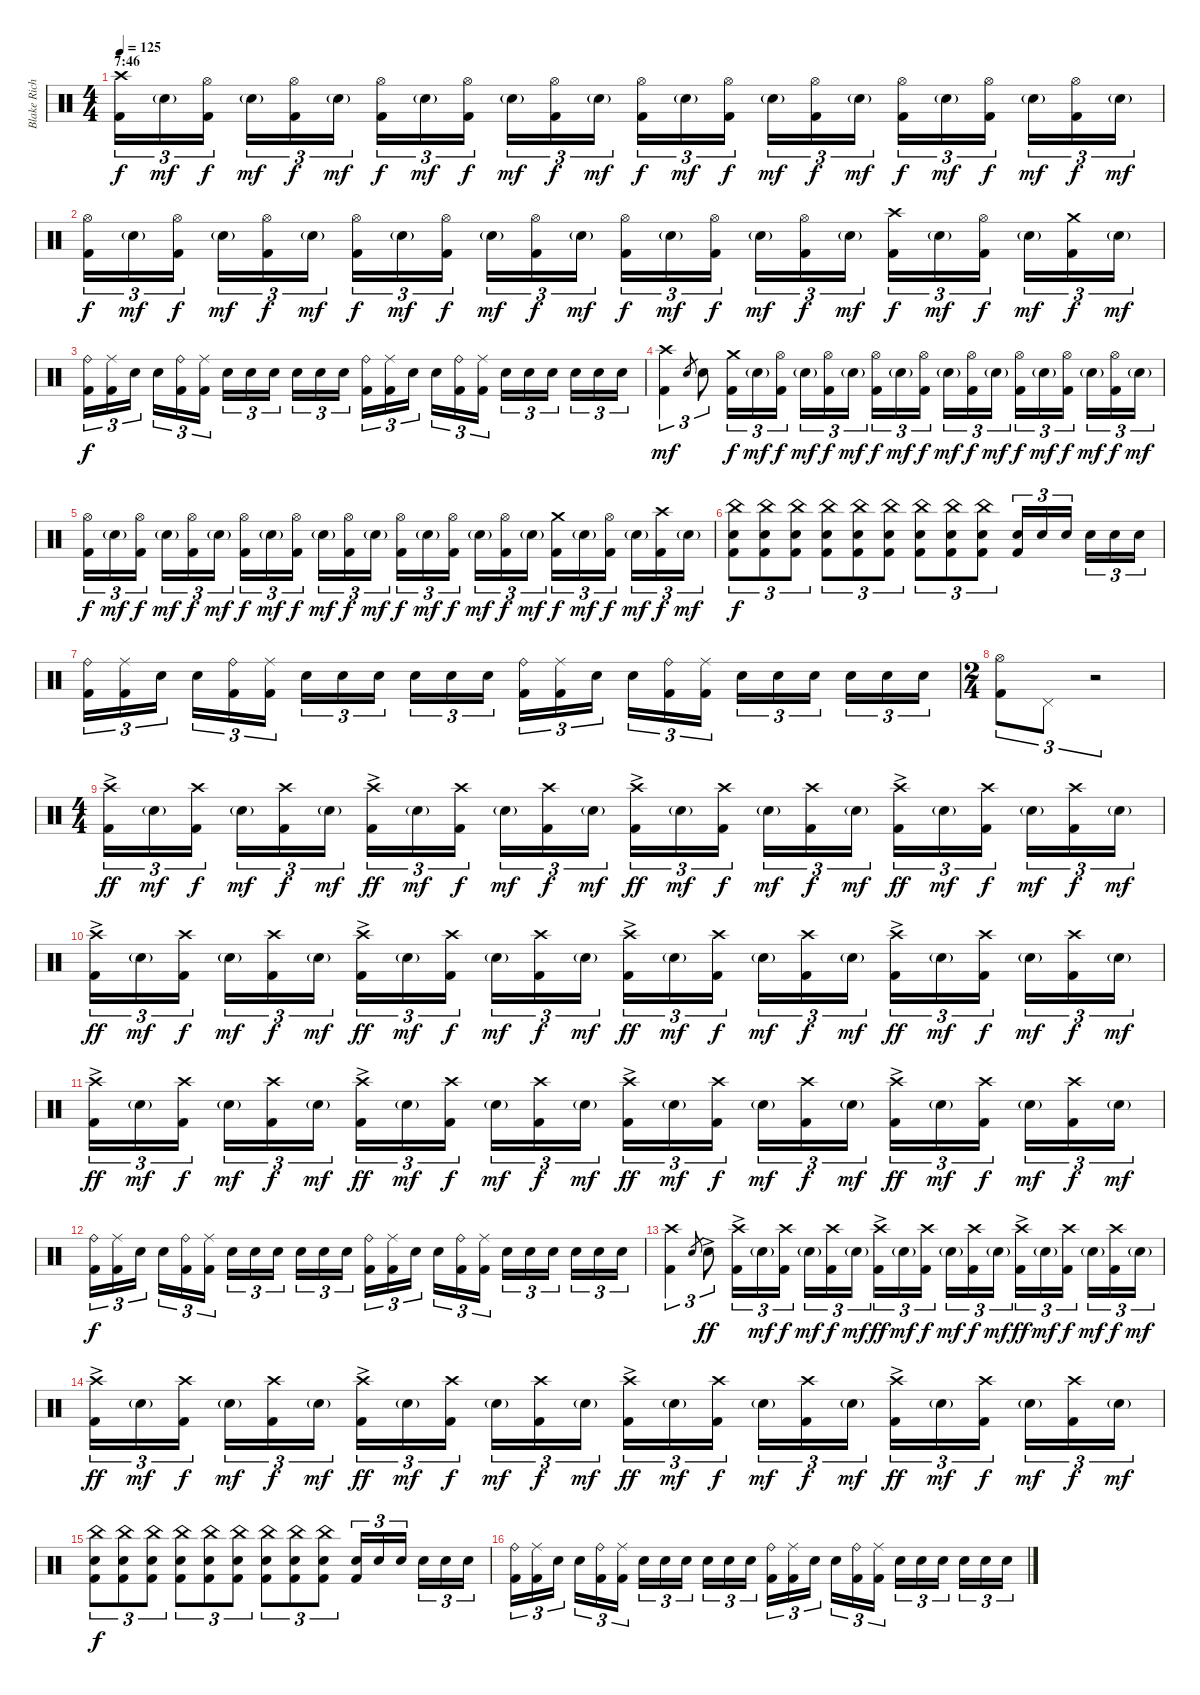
\track ("Blake Richardson" "Blake Rich") {instrument percussion}
\staff {score}
\articulation defaults
\ts (4 4)
\section ("" "7:46")
\tempo 125
\clef neutral
\ks c
("Crash high (hit)" "Kick (hit) 2").16{tu (3 2) dy f volume 13} "Electric Snare (hit)"{g}.16{tu (3 2) dy mf} ("Hi-Hat (open)" "Kick (hit) 2").16{tu (3 2) dy f beam splitsecondary} "Electric Snare (hit)"{g}.16{tu (3 2) dy mf} ("Hi-Hat (open)" "Kick (hit) 2").16{tu (3 2) dy f} "Electric Snare (hit)"{g}.16{tu (3 2) dy mf} ("Hi-Hat (open)" "Kick (hit) 2").16{tu (3 2) dy f} "Electric Snare (hit)"{g}.16{tu (3 2) dy mf} ("Hi-Hat (open)" "Kick (hit) 2").16{tu (3 2) dy f beam splitsecondary} "Electric Snare (hit)"{g}.16{tu (3 2) dy mf} ("Hi-Hat (open)" "Kick (hit) 2").16{tu (3 2) dy f} "Electric Snare (hit)"{g}.16{tu (3 2) dy mf} ("Hi-Hat (open)" "Kick (hit) 2").16{tu (3 2) dy f} "Electric Snare (hit)"{g}.16{tu (3 2) dy mf} ("Hi-Hat (open)" "Kick (hit) 2").16{tu (3 2) dy f beam splitsecondary} "Electric Snare (hit)"{g}.16{tu (3 2) dy mf} ("Hi-Hat (open)" "Kick (hit) 2").16{tu (3 2) dy f} "Electric Snare (hit)"{g}.16{tu (3 2) dy mf} ("Hi-Hat (open)" "Kick (hit) 2").16{tu (3 2) dy f} "Electric Snare (hit)"{g}.16{tu (3 2) dy mf} ("Hi-Hat (open)" "Kick (hit) 2").16{tu (3 2) dy f beam splitsecondary} "Electric Snare (hit)"{g}.16{tu (3 2) dy mf} ("Hi-Hat (open)" "Kick (hit) 2").16{tu (3 2) dy f} "Electric Snare (hit)"{g}.16{tu (3 2) dy mf} |
("Hi-Hat (open)" "Kick (hit) 2").16{tu (3 2) dy f} "Electric Snare (hit)"{g}.16{tu (3 2) dy mf} ("Hi-Hat (open)" "Kick (hit) 2").16{tu (3 2) dy f beam splitsecondary} "Electric Snare (hit)"{g}.16{tu (3 2) dy mf} ("Hi-Hat (open)" "Kick (hit) 2").16{tu (3 2) dy f} "Electric Snare (hit)"{g}.16{tu (3 2) dy mf} ("Hi-Hat (open)" "Kick (hit) 2").16{tu (3 2) dy f} "Electric Snare (hit)"{g}.16{tu (3 2) dy mf} ("Hi-Hat (open)" "Kick (hit) 2").16{tu (3 2) dy f beam splitsecondary} "Electric Snare (hit)"{g}.16{tu (3 2) dy mf} ("Hi-Hat (open)" "Kick (hit) 2").16{tu (3 2) dy f} "Electric Snare (hit)"{g}.16{tu (3 2) dy mf} ("Hi-Hat (open)" "Kick (hit) 2").16{tu (3 2) dy f} "Electric Snare (hit)"{g}.16{tu (3 2) dy mf} ("Hi-Hat (open)" "Kick (hit) 2").16{tu (3 2) dy f beam splitsecondary} "Electric Snare (hit)"{g}.16{tu (3 2) dy mf} ("Hi-Hat (open)" "Kick (hit) 2").16{tu (3 2) dy f} "Electric Snare (hit)"{g}.16{tu (3 2) dy mf} ("Crash high (hit)" "Kick (hit) 2").16{tu (3 2) dy f} "Electric Snare (hit)"{g}.16{tu (3 2) dy mf} ("Hi-Hat (open)" "Kick (hit) 2").16{tu (3 2) dy f beam splitsecondary} "Electric Snare (hit)"{g}.16{tu (3 2) dy mf} ("Crash medium (hit)" "Kick (hit) 2").16{tu (3 2) dy f} "Electric Snare (hit)"{g}.16{tu (3 2) dy mf} |
("Ride (bell)" "Kick (hit) 2").16{tu (3 2) dy f} ("Ride (middle)" "Kick (hit) 2").16{tu (3 2)} "Electric Snare (hit)".16{tu (3 2) beam splitsecondary} "Electric Snare (hit)".16{tu (3 2)} ("Ride (bell)" "Kick (hit) 2").16{tu (3 2)} ("Ride (middle)" "Kick (hit) 2").16{tu (3 2)} "Electric Snare (hit)".16{tu (3 2)} "Electric Snare (hit)".16{tu (3 2)} "Electric Snare (hit)".16{tu (3 2) beam splitsecondary} "Electric Snare (hit)".16{tu (3 2)} "Electric Snare (hit)".16{tu (3 2)} "Electric Snare (hit)".16{tu (3 2)} ("Ride (bell)" "Kick (hit) 2").16{tu (3 2)} ("Ride (middle)" "Kick (hit) 2").16{tu (3 2)} "Electric Snare (hit)".16{tu (3 2) beam splitsecondary} "Electric Snare (hit)".16{tu (3 2)} ("Ride (bell)" "Kick (hit) 2").16{tu (3 2)} ("Ride (middle)" "Kick (hit) 2").16{tu (3 2)} "Electric Snare (hit)".16{tu (3 2)} "Electric Snare (hit)".16{tu (3 2)} "Electric Snare (hit)".16{tu (3 2) beam splitsecondary} "Electric Snare (hit)".16{tu (3 2)} "Electric Snare (hit)".16{tu (3 2)} "Electric Snare (hit)".16{tu (3 2)} |
("Crash high (hit)" "Kick (hit) 2").4{tu (3 2) dy mf} "Electric Snare (hit)".8{gr} "Electric Snare (hit)".8{tu (3 2)} ("Crash medium (hit)" "Kick (hit) 2").16{tu (3 2) dy f} "Electric Snare (hit)"{g}.16{tu (3 2) dy mf} ("Hi-Hat (open)" "Kick (hit) 2").16{tu (3 2) dy f beam splitsecondary} "Electric Snare (hit)"{g}.16{tu (3 2) dy mf} ("Hi-Hat (open)" "Kick (hit) 2").16{tu (3 2) dy f} "Electric Snare (hit)"{g}.16{tu (3 2) dy mf} ("Hi-Hat (open)" "Kick (hit) 2").16{tu (3 2) dy f} "Electric Snare (hit)"{g}.16{tu (3 2) dy mf} ("Hi-Hat (open)" "Kick (hit) 2").16{tu (3 2) dy f beam splitsecondary} "Electric Snare (hit)"{g}.16{tu (3 2) dy mf} ("Hi-Hat (open)" "Kick (hit) 2").16{tu (3 2) dy f} "Electric Snare (hit)"{g}.16{tu (3 2) dy mf} ("Hi-Hat (open)" "Kick (hit) 2").16{tu (3 2) dy f} "Electric Snare (hit)"{g}.16{tu (3 2) dy mf} ("Hi-Hat (open)" "Kick (hit) 2").16{tu (3 2) dy f beam splitsecondary} "Electric Snare (hit)"{g}.16{tu (3 2) dy mf} ("Hi-Hat (open)" "Kick (hit) 2").16{tu (3 2) dy f} "Electric Snare (hit)"{g}.16{tu (3 2) dy mf} |
("Hi-Hat (open)" "Kick (hit) 2").16{tu (3 2) dy f} "Electric Snare (hit)"{g}.16{tu (3 2) dy mf} ("Hi-Hat (open)" "Kick (hit) 2").16{tu (3 2) dy f beam splitsecondary} "Electric Snare (hit)"{g}.16{tu (3 2) dy mf} ("Hi-Hat (open)" "Kick (hit) 2").16{tu (3 2) dy f} "Electric Snare (hit)"{g}.16{tu (3 2) dy mf} ("Hi-Hat (open)" "Kick (hit) 2").16{tu (3 2) dy f} "Electric Snare (hit)"{g}.16{tu (3 2) dy mf} ("Hi-Hat (open)" "Kick (hit) 2").16{tu (3 2) dy f beam splitsecondary} "Electric Snare (hit)"{g}.16{tu (3 2) dy mf} ("Hi-Hat (open)" "Kick (hit) 2").16{tu (3 2) dy f} "Electric Snare (hit)"{g}.16{tu (3 2) dy mf} ("Hi-Hat (open)" "Kick (hit) 2").16{tu (3 2) dy f} "Electric Snare (hit)"{g}.16{tu (3 2) dy mf} ("Hi-Hat (open)" "Kick (hit) 2").16{tu (3 2) dy f beam splitsecondary} "Electric Snare (hit)"{g}.16{tu (3 2) dy mf} ("Hi-Hat (open)" "Kick (hit) 2").16{tu (3 2) dy f} "Electric Snare (hit)"{g}.16{tu (3 2) dy mf} ("Crash medium (hit)" "Kick (hit) 2").16{tu (3 2) dy f} "Electric Snare (hit)"{g}.16{tu (3 2) dy mf} ("Hi-Hat (open)" "Kick (hit) 2").16{tu (3 2) dy f beam splitsecondary} "Electric Snare (hit)"{g}.16{tu (3 2) dy mf} ("Crash high (hit)" "Kick (hit) 2").16{tu (3 2) dy f} "Electric Snare (hit)"{g}.16{tu (3 2) dy mf} |
("China (hit)" "Electric Snare (hit)" "Kick (hit) 2").8{tu (3 2) dy f} ("China (hit)" "Electric Snare (hit)" "Kick (hit) 2").8{tu (3 2)} ("China (hit)" "Electric Snare (hit)" "Kick (hit) 2").8{tu (3 2)} ("China (hit)" "Electric Snare (hit)" "Kick (hit) 2").8{tu (3 2)} ("China (hit)" "Electric Snare (hit)" "Kick (hit) 2").8{tu (3 2)} ("China (hit)" "Electric Snare (hit)" "Kick (hit) 2").8{tu (3 2)} ("China (hit)" "Electric Snare (hit)" "Kick (hit) 2").8{tu (3 2)} ("China (hit)" "Electric Snare (hit)" "Kick (hit) 2").8{tu (3 2)} ("China (hit)" "Electric Snare (hit)" "Kick (hit) 2").8{tu (3 2)} ("Electric Snare (hit)" "Kick (hit) 2").16{tu (3 2)} "Electric Snare (hit)".16{tu (3 2)} "Electric Snare (hit)".16{tu (3 2) beam splitsecondary} "Electric Snare (hit)".16{tu (3 2)} "Electric Snare (hit)".16{tu (3 2)} "Electric Snare (hit)".16{tu (3 2)} |
("Ride (bell)" "Kick (hit) 2").16{tu (3 2)} ("Ride (middle)" "Kick (hit) 2").16{tu (3 2)} "Electric Snare (hit)".16{tu (3 2) beam splitsecondary} "Electric Snare (hit)".16{tu (3 2)} ("Ride (bell)" "Kick (hit) 2").16{tu (3 2)} ("Ride (middle)" "Kick (hit) 2").16{tu (3 2)} "Electric Snare (hit)".16{tu (3 2)} "Electric Snare (hit)".16{tu (3 2)} "Electric Snare (hit)".16{tu (3 2) beam splitsecondary} "Electric Snare (hit)".16{tu (3 2)} "Electric Snare (hit)".16{tu (3 2)} "Electric Snare (hit)".16{tu (3 2)} ("Ride (bell)" "Kick (hit) 2").16{tu (3 2)} ("Ride (middle)" "Kick (hit) 2").16{tu (3 2)} "Electric Snare (hit)".16{tu (3 2) beam splitsecondary} "Electric Snare (hit)".16{tu (3 2)} ("Ride (bell)" "Kick (hit) 2").16{tu (3 2)} ("Ride (middle)" "Kick (hit) 2").16{tu (3 2)} "Electric Snare (hit)".16{tu (3 2)} "Electric Snare (hit)".16{tu (3 2)} "Electric Snare (hit)".16{tu (3 2) beam splitsecondary} "Electric Snare (hit)".16{tu (3 2)} "Electric Snare (hit)".16{tu (3 2)} "Electric Snare (hit)".16{tu (3 2)} |
\ts (2 4)
("Hi-Hat (open)" "Kick (hit) 2").8{tu (3 2)} "Pedal Hi-Hat (hit)".8{tu (3 2)} r.2{tu (3 2)} |
\ts (4 4)
("Crash high (hit)"{ac} "Kick (hit) 2").16{tu (3 2) dy ff} "Electric Snare (hit)"{g}.16{tu (3 2) dy mf} ("Crash high (hit)" "Kick (hit) 2").16{tu (3 2) dy f beam splitsecondary} "Electric Snare (hit)"{g}.16{tu (3 2) dy mf} ("Crash high (hit)" "Kick (hit) 2").16{tu (3 2) dy f} "Electric Snare (hit)"{g}.16{tu (3 2) dy mf} ("Crash high (hit)"{ac} "Kick (hit) 2").16{tu (3 2) dy ff} "Electric Snare (hit)"{g}.16{tu (3 2) dy mf} ("Crash high (hit)" "Kick (hit) 2").16{tu (3 2) dy f beam splitsecondary} "Electric Snare (hit)"{g}.16{tu (3 2) dy mf} ("Crash high (hit)" "Kick (hit) 2").16{tu (3 2) dy f} "Electric Snare (hit)"{g}.16{tu (3 2) dy mf} ("Crash high (hit)"{ac} "Kick (hit) 2").16{tu (3 2) dy ff} "Electric Snare (hit)"{g}.16{tu (3 2) dy mf} ("Crash high (hit)" "Kick (hit) 2").16{tu (3 2) dy f beam splitsecondary} "Electric Snare (hit)"{g}.16{tu (3 2) dy mf} ("Crash high (hit)" "Kick (hit) 2").16{tu (3 2) dy f} "Electric Snare (hit)"{g}.16{tu (3 2) dy mf} ("Crash high (hit)"{ac} "Kick (hit) 2").16{tu (3 2) dy ff} "Electric Snare (hit)"{g}.16{tu (3 2) dy mf} ("Crash high (hit)" "Kick (hit) 2").16{tu (3 2) dy f beam splitsecondary} "Electric Snare (hit)"{g}.16{tu (3 2) dy mf} ("Crash high (hit)" "Kick (hit) 2").16{tu (3 2) dy f} "Electric Snare (hit)"{g}.16{tu (3 2) dy mf} |
("Crash high (hit)"{ac} "Kick (hit) 2").16{tu (3 2) dy ff} "Electric Snare (hit)"{g}.16{tu (3 2) dy mf} ("Crash high (hit)" "Kick (hit) 2").16{tu (3 2) dy f beam splitsecondary} "Electric Snare (hit)"{g}.16{tu (3 2) dy mf} ("Crash high (hit)" "Kick (hit) 2").16{tu (3 2) dy f} "Electric Snare (hit)"{g}.16{tu (3 2) dy mf} ("Crash high (hit)"{ac} "Kick (hit) 2").16{tu (3 2) dy ff} "Electric Snare (hit)"{g}.16{tu (3 2) dy mf} ("Crash high (hit)" "Kick (hit) 2").16{tu (3 2) dy f beam splitsecondary} "Electric Snare (hit)"{g}.16{tu (3 2) dy mf} ("Crash high (hit)" "Kick (hit) 2").16{tu (3 2) dy f} "Electric Snare (hit)"{g}.16{tu (3 2) dy mf} ("Crash high (hit)"{ac} "Kick (hit) 2").16{tu (3 2) dy ff} "Electric Snare (hit)"{g}.16{tu (3 2) dy mf} ("Crash high (hit)" "Kick (hit) 2").16{tu (3 2) dy f beam splitsecondary} "Electric Snare (hit)"{g}.16{tu (3 2) dy mf} ("Crash high (hit)" "Kick (hit) 2").16{tu (3 2) dy f} "Electric Snare (hit)"{g}.16{tu (3 2) dy mf} ("Crash high (hit)"{ac} "Kick (hit) 2").16{tu (3 2) dy ff} "Electric Snare (hit)"{g}.16{tu (3 2) dy mf} ("Crash high (hit)" "Kick (hit) 2").16{tu (3 2) dy f beam splitsecondary} "Electric Snare (hit)"{g}.16{tu (3 2) dy mf} ("Crash high (hit)" "Kick (hit) 2").16{tu (3 2) dy f} "Electric Snare (hit)"{g}.16{tu (3 2) dy mf} |
("Crash high (hit)"{ac} "Kick (hit) 2").16{tu (3 2) dy ff} "Electric Snare (hit)"{g}.16{tu (3 2) dy mf} ("Crash high (hit)" "Kick (hit) 2").16{tu (3 2) dy f beam splitsecondary} "Electric Snare (hit)"{g}.16{tu (3 2) dy mf} ("Crash high (hit)" "Kick (hit) 2").16{tu (3 2) dy f} "Electric Snare (hit)"{g}.16{tu (3 2) dy mf} ("Crash high (hit)"{ac} "Kick (hit) 2").16{tu (3 2) dy ff} "Electric Snare (hit)"{g}.16{tu (3 2) dy mf} ("Crash high (hit)" "Kick (hit) 2").16{tu (3 2) dy f beam splitsecondary} "Electric Snare (hit)"{g}.16{tu (3 2) dy mf} ("Crash high (hit)" "Kick (hit) 2").16{tu (3 2) dy f} "Electric Snare (hit)"{g}.16{tu (3 2) dy mf} ("Crash high (hit)"{ac} "Kick (hit) 2").16{tu (3 2) dy ff} "Electric Snare (hit)"{g}.16{tu (3 2) dy mf} ("Crash high (hit)" "Kick (hit) 2").16{tu (3 2) dy f beam splitsecondary} "Electric Snare (hit)"{g}.16{tu (3 2) dy mf} ("Crash high (hit)" "Kick (hit) 2").16{tu (3 2) dy f} "Electric Snare (hit)"{g}.16{tu (3 2) dy mf} ("Crash high (hit)"{ac} "Kick (hit) 2").16{tu (3 2) dy ff} "Electric Snare (hit)"{g}.16{tu (3 2) dy mf} ("Crash high (hit)" "Kick (hit) 2").16{tu (3 2) dy f beam splitsecondary} "Electric Snare (hit)"{g}.16{tu (3 2) dy mf} ("Crash high (hit)" "Kick (hit) 2").16{tu (3 2) dy f} "Electric Snare (hit)"{g}.16{tu (3 2) dy mf} |
("Ride (bell)" "Kick (hit) 2").16{tu (3 2) dy f} ("Ride (middle)" "Kick (hit) 2").16{tu (3 2)} "Electric Snare (hit)".16{tu (3 2) beam splitsecondary} "Electric Snare (hit)".16{tu (3 2)} ("Ride (bell)" "Kick (hit) 2").16{tu (3 2)} ("Ride (middle)" "Kick (hit) 2").16{tu (3 2)} "Electric Snare (hit)".16{tu (3 2)} "Electric Snare (hit)".16{tu (3 2)} "Electric Snare (hit)".16{tu (3 2) beam splitsecondary} "Electric Snare (hit)".16{tu (3 2)} "Electric Snare (hit)".16{tu (3 2)} "Electric Snare (hit)".16{tu (3 2)} ("Ride (bell)" "Kick (hit) 2").16{tu (3 2)} ("Ride (middle)" "Kick (hit) 2").16{tu (3 2)} "Electric Snare (hit)".16{tu (3 2) beam splitsecondary} "Electric Snare (hit)".16{tu (3 2)} ("Ride (bell)" "Kick (hit) 2").16{tu (3 2)} ("Ride (middle)" "Kick (hit) 2").16{tu (3 2)} "Electric Snare (hit)".16{tu (3 2)} "Electric Snare (hit)".16{tu (3 2)} "Electric Snare (hit)".16{tu (3 2) beam splitsecondary} "Electric Snare (hit)".16{tu (3 2)} "Electric Snare (hit)".16{tu (3 2)} "Electric Snare (hit)".16{tu (3 2)} |
("Crash high (hit)" "Kick (hit) 2").4{tu (3 2)} "Electric Snare (hit)".8{gr} "Electric Snare (hit)"{ac}.8{tu (3 2) dy ff} ("Crash high (hit)"{ac} "Kick (hit) 2").16{tu (3 2)} "Electric Snare (hit)"{g}.16{tu (3 2) dy mf} ("Crash high (hit)" "Kick (hit) 2").16{tu (3 2) dy f beam splitsecondary} "Electric Snare (hit)"{g}.16{tu (3 2) dy mf} ("Crash high (hit)" "Kick (hit) 2").16{tu (3 2) dy f} "Electric Snare (hit)"{g}.16{tu (3 2) dy mf} ("Crash high (hit)"{ac} "Kick (hit) 2").16{tu (3 2) dy ff} "Electric Snare (hit)"{g}.16{tu (3 2) dy mf} ("Crash high (hit)" "Kick (hit) 2").16{tu (3 2) dy f beam splitsecondary} "Electric Snare (hit)"{g}.16{tu (3 2) dy mf} ("Crash high (hit)" "Kick (hit) 2").16{tu (3 2) dy f} "Electric Snare (hit)"{g}.16{tu (3 2) dy mf} ("Crash high (hit)"{ac} "Kick (hit) 2").16{tu (3 2) dy ff} "Electric Snare (hit)"{g}.16{tu (3 2) dy mf} ("Crash high (hit)" "Kick (hit) 2").16{tu (3 2) dy f beam splitsecondary} "Electric Snare (hit)"{g}.16{tu (3 2) dy mf} ("Crash high (hit)" "Kick (hit) 2").16{tu (3 2) dy f} "Electric Snare (hit)"{g}.16{tu (3 2) dy mf} |
("Crash high (hit)"{ac} "Kick (hit) 2").16{tu (3 2) dy ff} "Electric Snare (hit)"{g}.16{tu (3 2) dy mf} ("Crash high (hit)" "Kick (hit) 2").16{tu (3 2) dy f beam splitsecondary} "Electric Snare (hit)"{g}.16{tu (3 2) dy mf} ("Crash high (hit)" "Kick (hit) 2").16{tu (3 2) dy f} "Electric Snare (hit)"{g}.16{tu (3 2) dy mf} ("Crash high (hit)"{ac} "Kick (hit) 2").16{tu (3 2) dy ff} "Electric Snare (hit)"{g}.16{tu (3 2) dy mf} ("Crash high (hit)" "Kick (hit) 2").16{tu (3 2) dy f beam splitsecondary} "Electric Snare (hit)"{g}.16{tu (3 2) dy mf} ("Crash high (hit)" "Kick (hit) 2").16{tu (3 2) dy f} "Electric Snare (hit)"{g}.16{tu (3 2) dy mf} ("Crash high (hit)"{ac} "Kick (hit) 2").16{tu (3 2) dy ff} "Electric Snare (hit)"{g}.16{tu (3 2) dy mf} ("Crash high (hit)" "Kick (hit) 2").16{tu (3 2) dy f beam splitsecondary} "Electric Snare (hit)"{g}.16{tu (3 2) dy mf} ("Crash high (hit)" "Kick (hit) 2").16{tu (3 2) dy f} "Electric Snare (hit)"{g}.16{tu (3 2) dy mf} ("Crash high (hit)"{ac} "Kick (hit) 2").16{tu (3 2) dy ff} "Electric Snare (hit)"{g}.16{tu (3 2) dy mf} ("Crash high (hit)" "Kick (hit) 2").16{tu (3 2) dy f beam splitsecondary} "Electric Snare (hit)"{g}.16{tu (3 2) dy mf} ("Crash high (hit)" "Kick (hit) 2").16{tu (3 2) dy f} "Electric Snare (hit)"{g}.16{tu (3 2) dy mf} |
("China (hit)" "Electric Snare (hit)" "Kick (hit) 2").8{tu (3 2) dy f} ("China (hit)" "Electric Snare (hit)" "Kick (hit) 2").8{tu (3 2)} ("China (hit)" "Electric Snare (hit)" "Kick (hit) 2").8{tu (3 2)} ("China (hit)" "Electric Snare (hit)" "Kick (hit) 2").8{tu (3 2)} ("China (hit)" "Electric Snare (hit)" "Kick (hit) 2").8{tu (3 2)} ("China (hit)" "Electric Snare (hit)" "Kick (hit) 2").8{tu (3 2)} ("China (hit)" "Electric Snare (hit)" "Kick (hit) 2").8{tu (3 2)} ("China (hit)" "Electric Snare (hit)" "Kick (hit) 2").8{tu (3 2)} ("China (hit)" "Electric Snare (hit)" "Kick (hit) 2").8{tu (3 2)} ("Electric Snare (hit)" "Kick (hit) 2").16{tu (3 2)} "Electric Snare (hit)".16{tu (3 2)} "Electric Snare (hit)".16{tu (3 2) beam splitsecondary} "Electric Snare (hit)".16{tu (3 2)} "Electric Snare (hit)".16{tu (3 2)} "Electric Snare (hit)".16{tu (3 2)} |
("Ride (bell)" "Kick (hit) 2").16{tu (3 2)} ("Ride (middle)" "Kick (hit) 2").16{tu (3 2)} "Electric Snare (hit)".16{tu (3 2) beam splitsecondary} "Electric Snare (hit)".16{tu (3 2)} ("Ride (bell)" "Kick (hit) 2").16{tu (3 2)} ("Ride (middle)" "Kick (hit) 2").16{tu (3 2)} "Electric Snare (hit)".16{tu (3 2)} "Electric Snare (hit)".16{tu (3 2)} "Electric Snare (hit)".16{tu (3 2) beam splitsecondary} "Electric Snare (hit)".16{tu (3 2)} "Electric Snare (hit)".16{tu (3 2)} "Electric Snare (hit)".16{tu (3 2)} ("Ride (bell)" "Kick (hit) 2").16{tu (3 2)} ("Ride (middle)" "Kick (hit) 2").16{tu (3 2)} "Electric Snare (hit)".16{tu (3 2) beam splitsecondary} "Electric Snare (hit)".16{tu (3 2)} ("Ride (bell)" "Kick (hit) 2").16{tu (3 2)} ("Ride (middle)" "Kick (hit) 2").16{tu (3 2)} "Electric Snare (hit)".16{tu (3 2)} "Electric Snare (hit)".16{tu (3 2)} "Electric Snare (hit)".16{tu (3 2) beam splitsecondary} "Electric Snare (hit)".16{tu (3 2)} "Electric Snare (hit)".16{tu (3 2)} "Electric Snare (hit)".16{tu (3 2)}
